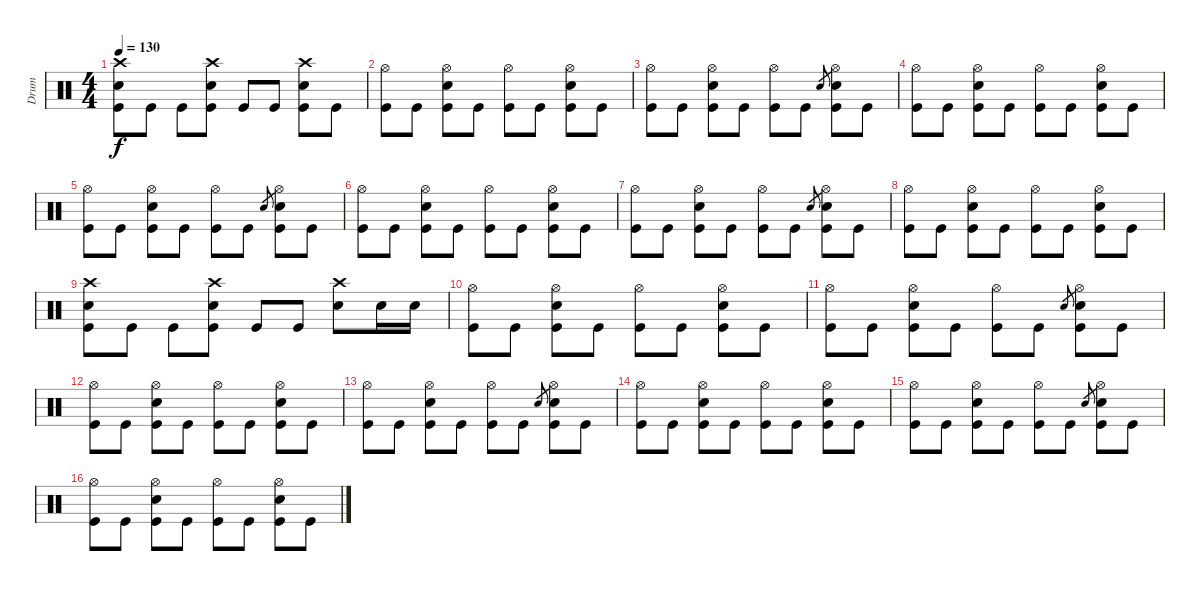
\track ("Drum" "Drum") {instrument percussion}
\staff {score}
\articulation defaults
\ts (4 4)
\tempo 130
\clef neutral
\ks c
("Crash high (hit)" "Electric Snare (hit)" "Kick (hit)").8{dy f} "Kick (hit)".8 "Kick (hit)".8 ("Crash high (hit)" "Electric Snare (hit)" "Kick (hit)").8 "Kick (hit)".8 "Kick (hit)".8 ("Crash high (hit)" "Electric Snare (hit)" "Kick (hit)").8 "Kick (hit)".8 |
("Hi-Hat (open)" "Kick (hit)").8 "Kick (hit)".8 ("Hi-Hat (open)" "Electric Snare (hit)" "Kick (hit)").8 "Kick (hit)".8 ("Hi-Hat (open)" "Kick (hit)").8 "Kick (hit)".8 ("Electric Snare (hit)" "Hi-Hat (open)" "Kick (hit)").8 "Kick (hit)".8 |
("Hi-Hat (open)" "Kick (hit)").8 "Kick (hit)".8 ("Hi-Hat (open)" "Electric Snare (hit)" "Kick (hit)").8 "Kick (hit)".8 ("Hi-Hat (open)" "Kick (hit)").8 "Kick (hit)".8 "Electric Snare (hit)".8{gr} ("Electric Snare (hit)" "Hi-Hat (open)" "Kick (hit)").8 "Kick (hit)".8 |
("Hi-Hat (open)" "Kick (hit)").8 "Kick (hit)".8 ("Hi-Hat (open)" "Electric Snare (hit)" "Kick (hit)").8 "Kick (hit)".8 ("Hi-Hat (open)" "Kick (hit)").8 "Kick (hit)".8 ("Electric Snare (hit)" "Hi-Hat (open)" "Kick (hit)").8 "Kick (hit)".8 |
("Hi-Hat (open)" "Kick (hit)").8 "Kick (hit)".8 ("Hi-Hat (open)" "Electric Snare (hit)" "Kick (hit)").8 "Kick (hit)".8 ("Hi-Hat (open)" "Kick (hit)").8 "Kick (hit)".8 "Electric Snare (hit)".8{gr} ("Electric Snare (hit)" "Hi-Hat (open)" "Kick (hit)").8 "Kick (hit)".8 |
("Hi-Hat (open)" "Kick (hit)").8 "Kick (hit)".8 ("Hi-Hat (open)" "Electric Snare (hit)" "Kick (hit)").8 "Kick (hit)".8 ("Hi-Hat (open)" "Kick (hit)").8 "Kick (hit)".8 ("Electric Snare (hit)" "Hi-Hat (open)" "Kick (hit)").8 "Kick (hit)".8 |
("Hi-Hat (open)" "Kick (hit)").8 "Kick (hit)".8 ("Hi-Hat (open)" "Electric Snare (hit)" "Kick (hit)").8 "Kick (hit)".8 ("Hi-Hat (open)" "Kick (hit)").8 "Kick (hit)".8 "Electric Snare (hit)".8{gr} ("Electric Snare (hit)" "Hi-Hat (open)" "Kick (hit)").8 "Kick (hit)".8 |
("Hi-Hat (open)" "Kick (hit)").8 "Kick (hit)".8 ("Hi-Hat (open)" "Electric Snare (hit)" "Kick (hit)").8 "Kick (hit)".8 ("Hi-Hat (open)" "Kick (hit)").8 "Kick (hit)".8 ("Electric Snare (hit)" "Hi-Hat (open)" "Kick (hit)").8 "Kick (hit)".8 |
("Crash high (hit)" "Electric Snare (hit)" "Kick (hit)").8 "Kick (hit)".8 "Kick (hit)".8 ("Crash high (hit)" "Electric Snare (hit)" "Kick (hit)").8 "Kick (hit)".8 "Kick (hit)".8 ("Crash high (hit)" "Electric Snare (hit)").8 "Electric Snare (hit)".16 "Electric Snare (hit)".16 |
("Hi-Hat (open)" "Kick (hit)").8 "Kick (hit)".8 ("Hi-Hat (open)" "Electric Snare (hit)" "Kick (hit)").8 "Kick (hit)".8 ("Hi-Hat (open)" "Kick (hit)").8 "Kick (hit)".8 ("Electric Snare (hit)" "Hi-Hat (open)" "Kick (hit)").8 "Kick (hit)".8 |
("Hi-Hat (open)" "Kick (hit)").8 "Kick (hit)".8 ("Hi-Hat (open)" "Electric Snare (hit)" "Kick (hit)").8 "Kick (hit)".8 ("Hi-Hat (open)" "Kick (hit)").8 "Kick (hit)".8 "Electric Snare (hit)".8{gr} ("Electric Snare (hit)" "Hi-Hat (open)" "Kick (hit)").8 "Kick (hit)".8 |
("Hi-Hat (open)" "Kick (hit)").8 "Kick (hit)".8 ("Hi-Hat (open)" "Electric Snare (hit)" "Kick (hit)").8 "Kick (hit)".8 ("Hi-Hat (open)" "Kick (hit)").8 "Kick (hit)".8 ("Electric Snare (hit)" "Hi-Hat (open)" "Kick (hit)").8 "Kick (hit)".8 |
("Hi-Hat (open)" "Kick (hit)").8 "Kick (hit)".8 ("Hi-Hat (open)" "Electric Snare (hit)" "Kick (hit)").8 "Kick (hit)".8 ("Hi-Hat (open)" "Kick (hit)").8 "Kick (hit)".8 "Electric Snare (hit)".8{gr} ("Electric Snare (hit)" "Hi-Hat (open)" "Kick (hit)").8 "Kick (hit)".8 |
("Hi-Hat (open)" "Kick (hit)").8 "Kick (hit)".8 ("Hi-Hat (open)" "Electric Snare (hit)" "Kick (hit)").8 "Kick (hit)".8 ("Hi-Hat (open)" "Kick (hit)").8 "Kick (hit)".8 ("Electric Snare (hit)" "Hi-Hat (open)" "Kick (hit)").8 "Kick (hit)".8 |
("Hi-Hat (open)" "Kick (hit)").8 "Kick (hit)".8 ("Hi-Hat (open)" "Electric Snare (hit)" "Kick (hit)").8 "Kick (hit)".8 ("Hi-Hat (open)" "Kick (hit)").8 "Kick (hit)".8 "Electric Snare (hit)".8{gr} ("Electric Snare (hit)" "Hi-Hat (open)" "Kick (hit)").8 "Kick (hit)".8 |
("Hi-Hat (open)" "Kick (hit)").8 "Kick (hit)".8 ("Hi-Hat (open)" "Electric Snare (hit)" "Kick (hit)").8 "Kick (hit)".8 ("Hi-Hat (open)" "Kick (hit)").8 "Kick (hit)".8 ("Electric Snare (hit)" "Hi-Hat (open)" "Kick (hit)").8 "Kick (hit)".8
